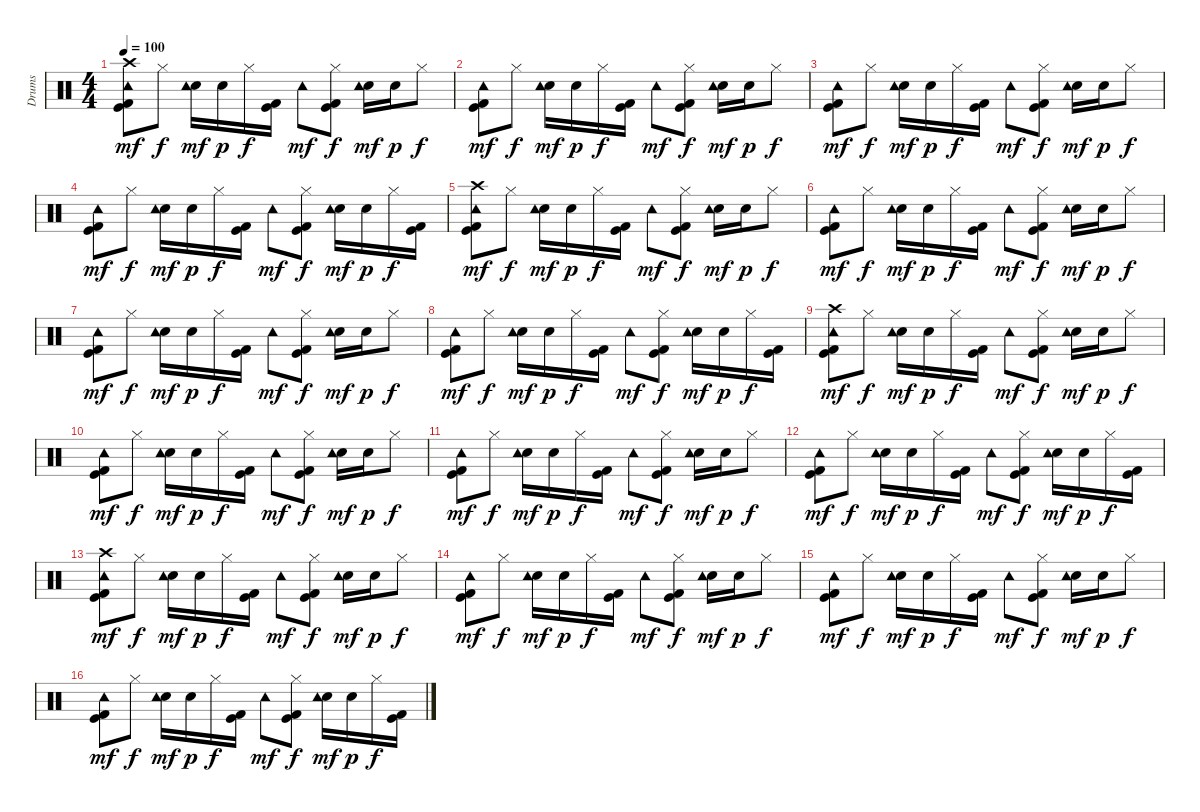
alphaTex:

\track ("Drums" "Drums") {instrument percussion}
\staff {score}
\articulation defaults
\ts (4 4)
\tempo 100
\clef neutral
\ks c
("Kick (hit)" "Kick (hit) 2" "Crash high (hit)" "Tambourine (hit)").8{dy mf} "Hi-Hat (closed)".8{dy f} ("Hand Clap (hit)" "Tambourine (hit)").16{dy mf} "Hand Clap (hit)".16{dy p} "Hi-Hat (closed)".16{dy f} ("Kick (hit)" "Kick (hit) 2").16 "Tambourine (hit)".8{dy mf} ("Kick (hit)" "Kick (hit) 2" "Hi-Hat (closed)").8{dy f} ("Hand Clap (hit)" "Tambourine (hit)").16{dy mf} "Hand Clap (hit)".16{dy p} "Hi-Hat (closed)".8{dy f} |
("Kick (hit)" "Kick (hit) 2" "Tambourine (hit)").8{dy mf} "Hi-Hat (closed)".8{dy f} ("Hand Clap (hit)" "Tambourine (hit)").16{dy mf} "Hand Clap (hit)".16{dy p} "Hi-Hat (closed)".16{dy f} ("Kick (hit)" "Kick (hit) 2").16 "Tambourine (hit)".8{dy mf} ("Kick (hit)" "Kick (hit) 2" "Hi-Hat (closed)").8{dy f} ("Hand Clap (hit)" "Tambourine (hit)").16{dy mf} "Hand Clap (hit)".16{dy p} "Hi-Hat (closed)".8{dy f} |
("Kick (hit)" "Kick (hit) 2" "Tambourine (hit)").8{dy mf} "Hi-Hat (closed)".8{dy f} ("Hand Clap (hit)" "Tambourine (hit)").16{dy mf} "Hand Clap (hit)".16{dy p} "Hi-Hat (closed)".16{dy f} ("Kick (hit)" "Kick (hit) 2").16 "Tambourine (hit)".8{dy mf} ("Kick (hit)" "Kick (hit) 2" "Hi-Hat (closed)").8{dy f} ("Hand Clap (hit)" "Tambourine (hit)").16{dy mf} "Hand Clap (hit)".16{dy p} "Hi-Hat (closed)".8{dy f} |
("Kick (hit)" "Kick (hit) 2" "Tambourine (hit)").8{dy mf} "Hi-Hat (closed)".8{dy f} ("Hand Clap (hit)" "Tambourine (hit)").16{dy mf} "Hand Clap (hit)".16{dy p} "Hi-Hat (closed)".16{dy f} ("Kick (hit)" "Kick (hit) 2").16 "Tambourine (hit)".8{dy mf} ("Kick (hit)" "Kick (hit) 2" "Hi-Hat (closed)").8{dy f} ("Hand Clap (hit)" "Tambourine (hit)").16{dy mf} "Hand Clap (hit)".16{dy p} "Hi-Hat (closed)".16{dy f} ("Kick (hit)" "Kick (hit) 2").16 |
("Kick (hit)" "Kick (hit) 2" "Tambourine (hit)" "Crash high (hit)").8{dy mf} "Hi-Hat (closed)".8{dy f} ("Hand Clap (hit)" "Tambourine (hit)").16{dy mf} "Hand Clap (hit)".16{dy p} "Hi-Hat (closed)".16{dy f} ("Kick (hit)" "Kick (hit) 2").16 "Tambourine (hit)".8{dy mf} ("Kick (hit)" "Kick (hit) 2" "Hi-Hat (closed)").8{dy f} ("Hand Clap (hit)" "Tambourine (hit)").16{dy mf} "Hand Clap (hit)".16{dy p} "Hi-Hat (closed)".8{dy f} |
("Kick (hit)" "Kick (hit) 2" "Tambourine (hit)").8{dy mf} "Hi-Hat (closed)".8{dy f} ("Hand Clap (hit)" "Tambourine (hit)").16{dy mf} "Hand Clap (hit)".16{dy p} "Hi-Hat (closed)".16{dy f} ("Kick (hit)" "Kick (hit) 2").16 "Tambourine (hit)".8{dy mf} ("Kick (hit)" "Kick (hit) 2" "Hi-Hat (closed)").8{dy f} ("Hand Clap (hit)" "Tambourine (hit)").16{dy mf} "Hand Clap (hit)".16{dy p} "Hi-Hat (closed)".8{dy f} |
("Kick (hit)" "Kick (hit) 2" "Tambourine (hit)").8{dy mf} "Hi-Hat (closed)".8{dy f} ("Hand Clap (hit)" "Tambourine (hit)").16{dy mf} "Hand Clap (hit)".16{dy p} "Hi-Hat (closed)".16{dy f} ("Kick (hit)" "Kick (hit) 2").16 "Tambourine (hit)".8{dy mf} ("Kick (hit)" "Kick (hit) 2" "Hi-Hat (closed)").8{dy f} ("Hand Clap (hit)" "Tambourine (hit)").16{dy mf} "Hand Clap (hit)".16{dy p} "Hi-Hat (closed)".8{dy f} |
("Kick (hit)" "Kick (hit) 2" "Tambourine (hit)").8{dy mf} "Hi-Hat (closed)".8{dy f} ("Hand Clap (hit)" "Tambourine (hit)").16{dy mf} "Hand Clap (hit)".16{dy p} "Hi-Hat (closed)".16{dy f} ("Kick (hit)" "Kick (hit) 2").16 "Tambourine (hit)".8{dy mf} ("Kick (hit)" "Kick (hit) 2" "Hi-Hat (closed)").8{dy f} ("Hand Clap (hit)" "Tambourine (hit)").16{dy mf} "Hand Clap (hit)".16{dy p} "Hi-Hat (closed)".16{dy f} ("Kick (hit)" "Kick (hit) 2").16 |
("Kick (hit)" "Kick (hit) 2" "Tambourine (hit)" "Crash high (hit)").8{dy mf} "Hi-Hat (closed)".8{dy f} ("Hand Clap (hit)" "Tambourine (hit)").16{dy mf} "Hand Clap (hit)".16{dy p} "Hi-Hat (closed)".16{dy f} ("Kick (hit)" "Kick (hit) 2").16 "Tambourine (hit)".8{dy mf} ("Kick (hit)" "Kick (hit) 2" "Hi-Hat (closed)").8{dy f} ("Hand Clap (hit)" "Tambourine (hit)").16{dy mf} "Hand Clap (hit)".16{dy p} "Hi-Hat (closed)".8{dy f} |
("Kick (hit)" "Kick (hit) 2" "Tambourine (hit)").8{dy mf} "Hi-Hat (closed)".8{dy f} ("Hand Clap (hit)" "Tambourine (hit)").16{dy mf} "Hand Clap (hit)".16{dy p} "Hi-Hat (closed)".16{dy f} ("Kick (hit)" "Kick (hit) 2").16 "Tambourine (hit)".8{dy mf} ("Kick (hit)" "Kick (hit) 2" "Hi-Hat (closed)").8{dy f} ("Hand Clap (hit)" "Tambourine (hit)").16{dy mf} "Hand Clap (hit)".16{dy p} "Hi-Hat (closed)".8{dy f} |
("Kick (hit)" "Kick (hit) 2" "Tambourine (hit)").8{dy mf} "Hi-Hat (closed)".8{dy f} ("Hand Clap (hit)" "Tambourine (hit)").16{dy mf} "Hand Clap (hit)".16{dy p} "Hi-Hat (closed)".16{dy f} ("Kick (hit)" "Kick (hit) 2").16 "Tambourine (hit)".8{dy mf} ("Kick (hit)" "Kick (hit) 2" "Hi-Hat (closed)").8{dy f} ("Hand Clap (hit)" "Tambourine (hit)").16{dy mf} "Hand Clap (hit)".16{dy p} "Hi-Hat (closed)".8{dy f} |
("Kick (hit)" "Kick (hit) 2" "Tambourine (hit)").8{dy mf} "Hi-Hat (closed)".8{dy f} ("Hand Clap (hit)" "Tambourine (hit)").16{dy mf} "Hand Clap (hit)".16{dy p} "Hi-Hat (closed)".16{dy f} ("Kick (hit)" "Kick (hit) 2").16 "Tambourine (hit)".8{dy mf} ("Kick (hit)" "Kick (hit) 2" "Hi-Hat (closed)").8{dy f} ("Hand Clap (hit)" "Tambourine (hit)").16{dy mf} "Hand Clap (hit)".16{dy p} "Hi-Hat (closed)".16{dy f} ("Kick (hit)" "Kick (hit) 2").16 |
("Kick (hit)" "Kick (hit) 2" "Tambourine (hit)" "Crash high (hit)").8{dy mf} "Hi-Hat (closed)".8{dy f} ("Hand Clap (hit)" "Tambourine (hit)").16{dy mf} "Hand Clap (hit)".16{dy p} "Hi-Hat (closed)".16{dy f} ("Kick (hit)" "Kick (hit) 2").16 "Tambourine (hit)".8{dy mf} ("Kick (hit)" "Kick (hit) 2" "Hi-Hat (closed)").8{dy f} ("Hand Clap (hit)" "Tambourine (hit)").16{dy mf} "Hand Clap (hit)".16{dy p} "Hi-Hat (closed)".8{dy f} |
("Kick (hit)" "Kick (hit) 2" "Tambourine (hit)").8{dy mf} "Hi-Hat (closed)".8{dy f} ("Hand Clap (hit)" "Tambourine (hit)").16{dy mf} "Hand Clap (hit)".16{dy p} "Hi-Hat (closed)".16{dy f} ("Kick (hit)" "Kick (hit) 2").16 "Tambourine (hit)".8{dy mf} ("Kick (hit)" "Kick (hit) 2" "Hi-Hat (closed)").8{dy f} ("Hand Clap (hit)" "Tambourine (hit)").16{dy mf} "Hand Clap (hit)".16{dy p} "Hi-Hat (closed)".8{dy f} |
("Kick (hit)" "Kick (hit) 2" "Tambourine (hit)").8{dy mf} "Hi-Hat (closed)".8{dy f} ("Hand Clap (hit)" "Tambourine (hit)").16{dy mf} "Hand Clap (hit)".16{dy p} "Hi-Hat (closed)".16{dy f} ("Kick (hit)" "Kick (hit) 2").16 "Tambourine (hit)".8{dy mf} ("Kick (hit)" "Kick (hit) 2" "Hi-Hat (closed)").8{dy f} ("Hand Clap (hit)" "Tambourine (hit)").16{dy mf} "Hand Clap (hit)".16{dy p} "Hi-Hat (closed)".8{dy f} |
("Kick (hit)" "Kick (hit) 2" "Tambourine (hit)").8{dy mf} "Hi-Hat (closed)".8{dy f} ("Hand Clap (hit)" "Tambourine (hit)").16{dy mf} "Hand Clap (hit)".16{dy p} "Hi-Hat (closed)".16{dy f} ("Kick (hit)" "Kick (hit) 2").16 "Tambourine (hit)".8{dy mf} ("Kick (hit)" "Kick (hit) 2" "Hi-Hat (closed)").8{dy f} ("Hand Clap (hit)" "Tambourine (hit)").16{dy mf} "Hand Clap (hit)".16{dy p} "Hi-Hat (closed)".16{dy f} ("Kick (hit)" "Kick (hit) 2").16
